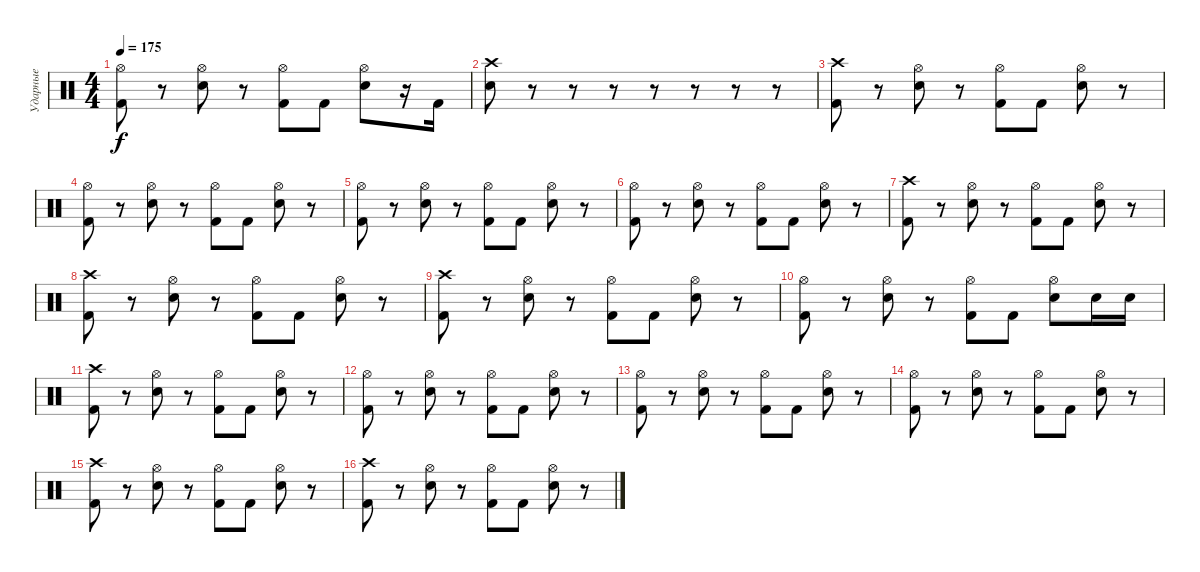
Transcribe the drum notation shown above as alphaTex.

\track ("Ударные" "Ударные") {instrument percussion}
\staff {score}
\articulation defaults
\ts (4 4)
\tempo 175
\clef neutral
\ks c
("Kick (hit) 2" "Hi-Hat (open)").8{dy f} r.8 ("Electric Snare (hit)" "Hi-Hat (open)").8 r.8 ("Kick (hit) 2" "Hi-Hat (open)").8 "Kick (hit) 2".8 ("Electric Snare (hit)" "Hi-Hat (open)").8 r.16 "Kick (hit) 2".16 |
("Electric Snare (hit)" "Crash high (hit)").8 r.8 r.8 r.8 r.8 r.8 r.8 r.8 |
("Kick (hit) 2" "Crash high (hit)").8 r.8 ("Electric Snare (hit)" "Hi-Hat (open)").8 r.8 ("Kick (hit) 2" "Hi-Hat (open)").8 "Kick (hit) 2".8 ("Electric Snare (hit)" "Hi-Hat (open)").8 r.8 |
("Kick (hit) 2" "Hi-Hat (open)").8 r.8 ("Electric Snare (hit)" "Hi-Hat (open)").8 r.8 ("Kick (hit) 2" "Hi-Hat (open)").8 "Kick (hit) 2".8 ("Electric Snare (hit)" "Hi-Hat (open)").8 r.8 |
("Kick (hit) 2" "Hi-Hat (open)").8 r.8 ("Electric Snare (hit)" "Hi-Hat (open)").8 r.8 ("Kick (hit) 2" "Hi-Hat (open)").8 "Kick (hit) 2".8 ("Electric Snare (hit)" "Hi-Hat (open)").8 r.8 |
("Kick (hit) 2" "Hi-Hat (open)").8 r.8 ("Electric Snare (hit)" "Hi-Hat (open)").8 r.8 ("Kick (hit) 2" "Hi-Hat (open)").8 "Kick (hit) 2".8 ("Electric Snare (hit)" "Hi-Hat (open)").8 r.8 |
("Kick (hit) 2" "Crash high (hit)").8 r.8 ("Electric Snare (hit)" "Hi-Hat (open)").8 r.8 ("Kick (hit) 2" "Hi-Hat (open)").8 "Kick (hit) 2".8 ("Electric Snare (hit)" "Hi-Hat (open)").8 r.8 |
("Kick (hit) 2" "Crash high (hit)").8 r.8 ("Electric Snare (hit)" "Hi-Hat (open)").8 r.8 ("Kick (hit) 2" "Hi-Hat (open)").8 "Kick (hit) 2".8 ("Electric Snare (hit)" "Hi-Hat (open)").8 r.8 |
("Kick (hit) 2" "Crash high (hit)").8 r.8 ("Electric Snare (hit)" "Hi-Hat (open)").8 r.8 ("Kick (hit) 2" "Hi-Hat (open)").8 "Kick (hit) 2".8 ("Electric Snare (hit)" "Hi-Hat (open)").8 r.8 |
("Kick (hit) 2" "Hi-Hat (open)").8 r.8 ("Electric Snare (hit)" "Hi-Hat (open)").8 r.8 ("Kick (hit) 2" "Hi-Hat (open)").8 "Kick (hit) 2".8 ("Electric Snare (hit)" "Hi-Hat (open)").8 "Electric Snare (hit)".16 "Electric Snare (hit)".16 |
("Kick (hit) 2" "Crash high (hit)").8 r.8 ("Electric Snare (hit)" "Hi-Hat (open)").8 r.8 ("Kick (hit) 2" "Hi-Hat (open)").8 "Kick (hit) 2".8 ("Electric Snare (hit)" "Hi-Hat (open)").8 r.8 |
("Kick (hit) 2" "Hi-Hat (open)").8 r.8 ("Electric Snare (hit)" "Hi-Hat (open)").8 r.8 ("Kick (hit) 2" "Hi-Hat (open)").8 "Kick (hit) 2".8 ("Electric Snare (hit)" "Hi-Hat (open)").8 r.8 |
("Kick (hit) 2" "Hi-Hat (open)").8 r.8 ("Electric Snare (hit)" "Hi-Hat (open)").8 r.8 ("Kick (hit) 2" "Hi-Hat (open)").8 "Kick (hit) 2".8 ("Electric Snare (hit)" "Hi-Hat (open)").8 r.8 |
("Kick (hit) 2" "Hi-Hat (open)").8 r.8 ("Electric Snare (hit)" "Hi-Hat (open)").8 r.8 ("Kick (hit) 2" "Hi-Hat (open)").8 "Kick (hit) 2".8 ("Electric Snare (hit)" "Hi-Hat (open)").8 r.8 |
("Kick (hit) 2" "Crash high (hit)").8 r.8 ("Electric Snare (hit)" "Hi-Hat (open)").8 r.8 ("Kick (hit) 2" "Hi-Hat (open)").8 "Kick (hit) 2".8 ("Electric Snare (hit)" "Hi-Hat (open)").8 r.8 |
("Kick (hit) 2" "Crash high (hit)").8 r.8 ("Electric Snare (hit)" "Hi-Hat (open)").8 r.8 ("Kick (hit) 2" "Hi-Hat (open)").8 "Kick (hit) 2".8 ("Electric Snare (hit)" "Hi-Hat (open)").8 r.8
